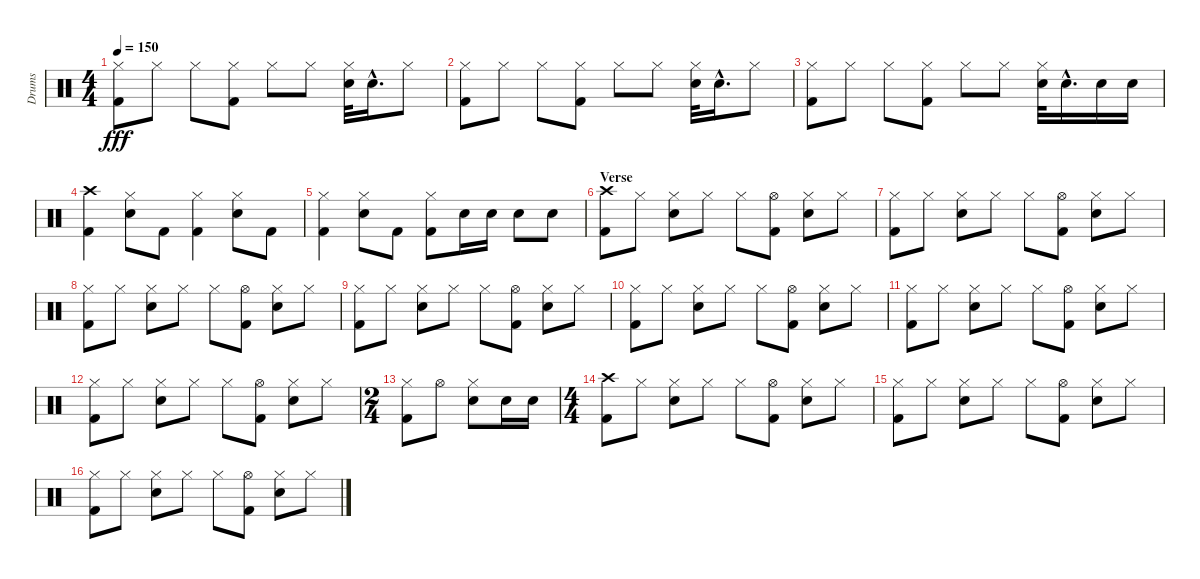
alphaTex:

\track ("Drums" "Drums") {instrument percussion}
\staff {score}
\articulation defaults
\ts (4 4)
\tempo 150
\clef neutral
\ks c
("Hi-Hat (closed)" "Kick (hit) 2").8{dy fff} "Hi-Hat (closed)".8 "Hi-Hat (closed)".8 ("Hi-Hat (closed)" "Kick (hit) 2").8 "Hi-Hat (closed)".8 "Hi-Hat (closed)".8 ("Hi-Hat (closed)" "Snare (hit) 2").32 "Snare (hit) 2"{hac}.16{d} "Hi-Hat (closed)".8 |
("Hi-Hat (closed)" "Kick (hit) 2").8 "Hi-Hat (closed)".8 "Hi-Hat (closed)".8 ("Hi-Hat (closed)" "Kick (hit) 2").8 "Hi-Hat (closed)".8 "Hi-Hat (closed)".8 ("Hi-Hat (closed)" "Snare (hit) 2").32 "Snare (hit) 2"{hac}.16{d} "Hi-Hat (closed)".8 |
("Hi-Hat (closed)" "Kick (hit) 2").8 "Hi-Hat (closed)".8 "Hi-Hat (closed)".8 ("Hi-Hat (closed)" "Kick (hit) 2").8 "Hi-Hat (closed)".8 "Hi-Hat (closed)".8 ("Hi-Hat (closed)" "Snare (hit) 2").32 "Snare (hit) 2"{hac}.16{d} "Snare (hit) 2".16 "Snare (hit) 2".16 |
("Crash high (hit)" "Kick (hit) 2").4 ("Hi-Hat (closed)" "Snare (hit) 2").8 "Kick (hit) 2".8 ("Hi-Hat (closed)" "Kick (hit) 2").4 ("Hi-Hat (closed)" "Snare (hit) 2").8 "Kick (hit) 2".8 |
("Hi-Hat (closed)" "Kick (hit) 2").4 ("Hi-Hat (closed)" "Snare (hit) 2").8 "Kick (hit) 2".8 ("Hi-Hat (closed)" "Kick (hit) 2").8 "Snare (hit) 2".16 "Snare (hit) 2".16 "Snare (hit) 2".8 "Snare (hit) 2".8 |
\section ("" "Verse")
("Crash high (hit)" "Kick (hit) 2").8 "Hi-Hat (closed)".8 ("Hi-Hat (closed)" "Snare (hit) 2").8 "Hi-Hat (closed)".8 "Hi-Hat (closed)".8 ("Hi-Hat (open)" "Kick (hit) 2").8 ("Hi-Hat (closed)" "Snare (hit) 2").8 "Hi-Hat (closed)".8 |
("Hi-Hat (closed)" "Kick (hit) 2").8 "Hi-Hat (closed)".8 ("Hi-Hat (closed)" "Snare (hit) 2").8 "Hi-Hat (closed)".8 "Hi-Hat (closed)".8 ("Hi-Hat (open)" "Kick (hit) 2").8 ("Hi-Hat (closed)" "Snare (hit) 2").8 "Hi-Hat (closed)".8 |
("Hi-Hat (closed)" "Kick (hit) 2").8 "Hi-Hat (closed)".8 ("Hi-Hat (closed)" "Snare (hit) 2").8 "Hi-Hat (closed)".8 "Hi-Hat (closed)".8 ("Hi-Hat (open)" "Kick (hit) 2").8 ("Hi-Hat (closed)" "Snare (hit) 2").8 "Hi-Hat (closed)".8 |
("Hi-Hat (closed)" "Kick (hit) 2").8 "Hi-Hat (closed)".8 ("Hi-Hat (closed)" "Snare (hit) 2").8 "Hi-Hat (closed)".8 "Hi-Hat (closed)".8 ("Hi-Hat (open)" "Kick (hit) 2").8 ("Hi-Hat (closed)" "Snare (hit) 2").8 "Hi-Hat (closed)".8 |
("Hi-Hat (closed)" "Kick (hit) 2").8 "Hi-Hat (closed)".8 ("Hi-Hat (closed)" "Snare (hit) 2").8 "Hi-Hat (closed)".8 "Hi-Hat (closed)".8 ("Hi-Hat (open)" "Kick (hit) 2").8 ("Hi-Hat (closed)" "Snare (hit) 2").8 "Hi-Hat (closed)".8 |
("Hi-Hat (closed)" "Kick (hit) 2").8 "Hi-Hat (closed)".8 ("Hi-Hat (closed)" "Snare (hit) 2").8 "Hi-Hat (closed)".8 "Hi-Hat (closed)".8 ("Hi-Hat (open)" "Kick (hit) 2").8 ("Hi-Hat (closed)" "Snare (hit) 2").8 "Hi-Hat (closed)".8 |
("Hi-Hat (closed)" "Kick (hit) 2").8 "Hi-Hat (closed)".8 ("Hi-Hat (closed)" "Snare (hit) 2").8 "Hi-Hat (closed)".8 "Hi-Hat (closed)".8 ("Hi-Hat (open)" "Kick (hit) 2").8 ("Hi-Hat (closed)" "Snare (hit) 2").8 "Hi-Hat (closed)".8 |
\ts (2 4)
("Hi-Hat (closed)" "Kick (hit) 2").8 "Hi-Hat (open)".8 ("Hi-Hat (closed)" "Snare (hit) 2").8 "Snare (hit) 2".16 "Snare (hit) 2".16 |
\ts (4 4)
("Crash high (hit)" "Kick (hit) 2").8 "Hi-Hat (closed)".8 ("Hi-Hat (closed)" "Snare (hit) 2").8 "Hi-Hat (closed)".8 "Hi-Hat (closed)".8 ("Hi-Hat (open)" "Kick (hit) 2").8 ("Hi-Hat (closed)" "Snare (hit) 2").8 "Hi-Hat (closed)".8 |
("Hi-Hat (closed)" "Kick (hit) 2").8 "Hi-Hat (closed)".8 ("Hi-Hat (closed)" "Snare (hit) 2").8 "Hi-Hat (closed)".8 "Hi-Hat (closed)".8 ("Hi-Hat (open)" "Kick (hit) 2").8 ("Hi-Hat (closed)" "Snare (hit) 2").8 "Hi-Hat (closed)".8 |
("Hi-Hat (closed)" "Kick (hit) 2").8 "Hi-Hat (closed)".8 ("Hi-Hat (closed)" "Snare (hit) 2").8 "Hi-Hat (closed)".8 "Hi-Hat (closed)".8 ("Hi-Hat (open)" "Kick (hit) 2").8 ("Hi-Hat (closed)" "Snare (hit) 2").8 "Hi-Hat (closed)".8
